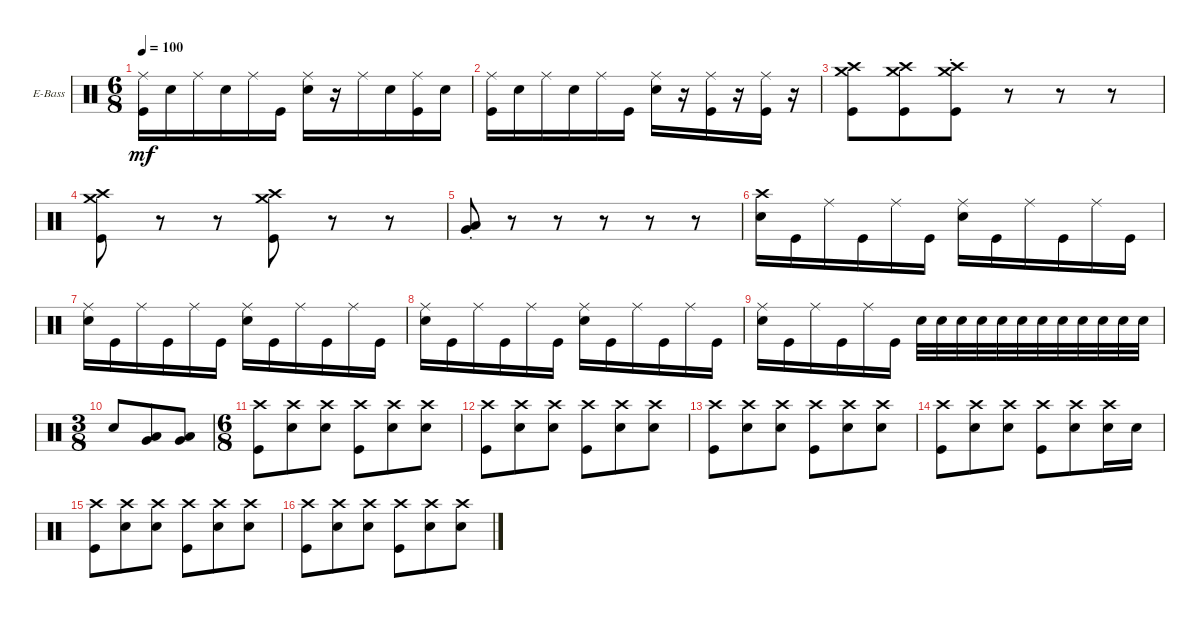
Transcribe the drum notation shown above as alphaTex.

\defaultSystemsLayout 4
\bracketExtendMode groupsimilarinstruments
\firstSystemTrackNameOrientation horizontal
\otherSystemsTrackNameOrientation horizontal
\track ("Drums" "E-Bass") {instrument percussion}
\staff {score}
\articulation defaults
\ts (6 8)
\tempo 100
\clef neutral
\ks c
("Kick (hit)" "Ride (middle)").16{dy mf} "Snare (hit) 2".16 "Ride (middle)".16 "Snare (hit) 2".16 "Ride (middle)".16 "Kick (hit)".16 ("Ride (middle)" "Snare (hit) 2").16 r.16 "Ride (middle)".16 "Snare (hit) 2".16 ("Ride (middle)" "Kick (hit)").16 "Snare (hit) 2".16 |
("Ride (middle)" "Kick (hit)").16 "Snare (hit) 2".16 "Ride (middle)".16 "Snare (hit) 2".16 "Ride (middle)".16 "Kick (hit)".16 ("Ride (middle)" "Snare (hit) 2").16 r.16 ("Ride (middle)" "Kick (hit)").16 r.16 ("Ride (middle)" "Kick (hit)").16 r.16 |
("Kick (hit)" "Crash medium (hit)" "Crash high (hit)").8 ("Kick (hit)" "Crash high (hit)" "Crash medium (hit)").8 ("Kick (hit)" "Crash medium (hit)"{st} "Crash high (hit)"{st}).8 r.8 r.8 r.8 |
("Kick (hit)" "Crash medium (hit)" "Crash high (hit)").8 r.8 r.8 ("Kick (hit)" "Crash high (hit)" "Crash medium (hit)").8 r.8 r.8 |
("Very Low Tom (hit)"{st} "Low Tom (hit)"{st}).8 r.8 r.8 r.8 r.8 r.8 |
("Snare (hit) 2" "Crash high (hit)").16 "Kick (hit)".16 "Ride (middle)".16 "Kick (hit)".16 "Ride (middle)".16 "Kick (hit)".16 ("Snare (hit) 2" "Ride (middle)").16 "Kick (hit)".16 "Ride (middle)".16 "Kick (hit)".16 "Ride (middle)".16 "Kick (hit)".16 |
("Snare (hit) 2" "Ride (middle)").16 "Kick (hit)".16 "Ride (middle)".16 "Kick (hit)".16 "Ride (middle)".16 "Kick (hit)".16 ("Snare (hit) 2" "Ride (middle)").16 "Kick (hit)".16 "Ride (middle)".16 "Kick (hit)".16 "Ride (middle)".16 "Kick (hit)".16 |
("Snare (hit) 2" "Ride (middle)").16 "Kick (hit)".16 "Ride (middle)".16 "Kick (hit)".16 "Ride (middle)".16 "Kick (hit)".16 ("Snare (hit) 2" "Ride (middle)").16 "Kick (hit)".16 "Ride (middle)".16 "Kick (hit)".16 "Ride (middle)".16 "Kick (hit)".16 |
("Snare (hit) 2" "Ride (middle)").16 "Kick (hit)".16 "Ride (middle)".16 "Kick (hit)".16 "Ride (middle)".16 "Kick (hit)".16 "Snare (hit) 2".32 "Snare (hit) 2".32 "Snare (hit) 2".32 "Snare (hit) 2".32 "Snare (hit) 2".32 "Snare (hit) 2".32 "Snare (hit) 2".32 "Snare (hit) 2".32 "Snare (hit) 2".32 "Snare (hit) 2".32 "Snare (hit) 2".32 "Snare (hit) 2".32 |
\ts (3 8)
"Snare (hit) 2".8 ("Low Tom (hit)" "Very Low Tom (hit)").8 ("Very Low Tom (hit)" "Low Tom (hit)").8 |
\ts (6 8)
("Crash high (hit)" "Kick (hit)").8 ("Crash high (hit)" "Snare (hit) 2").8 ("Crash high (hit)" "Snare (hit) 2").8 ("Crash high (hit)" "Kick (hit)").8 ("Snare (hit) 2" "Crash high (hit)").8 ("Snare (hit) 2" "Crash high (hit)").8 |
("Crash high (hit)" "Kick (hit)").8 ("Crash high (hit)" "Snare (hit) 2").8 ("Crash high (hit)" "Snare (hit) 2").8 ("Crash high (hit)" "Kick (hit)").8 ("Snare (hit) 2" "Crash high (hit)").8 ("Snare (hit) 2" "Crash high (hit)").8 |
("Crash high (hit)" "Kick (hit)").8 ("Crash high (hit)" "Snare (hit) 2").8 ("Crash high (hit)" "Snare (hit) 2").8 ("Crash high (hit)" "Kick (hit)").8 ("Snare (hit) 2" "Crash high (hit)").8 ("Snare (hit) 2" "Crash high (hit)").8 |
("Crash high (hit)" "Kick (hit)").8 ("Crash high (hit)" "Snare (hit) 2").8 ("Crash high (hit)" "Snare (hit) 2").8 ("Crash high (hit)" "Kick (hit)").8 ("Snare (hit) 2" "Crash high (hit)").8 ("Snare (hit) 2" "Crash high (hit)").16 "Snare (hit) 2".16 |
("Crash high (hit)" "Kick (hit)").8 ("Crash high (hit)" "Snare (hit) 2").8 ("Crash high (hit)" "Snare (hit) 2").8 ("Crash high (hit)" "Kick (hit)").8 ("Snare (hit) 2" "Crash high (hit)").8 ("Snare (hit) 2" "Crash high (hit)").8 |
("Crash high (hit)" "Kick (hit)").8 ("Crash high (hit)" "Snare (hit) 2").8 ("Crash high (hit)" "Snare (hit) 2").8 ("Crash high (hit)" "Kick (hit)").8 ("Snare (hit) 2" "Crash high (hit)").8 ("Snare (hit) 2" "Crash high (hit)").8
